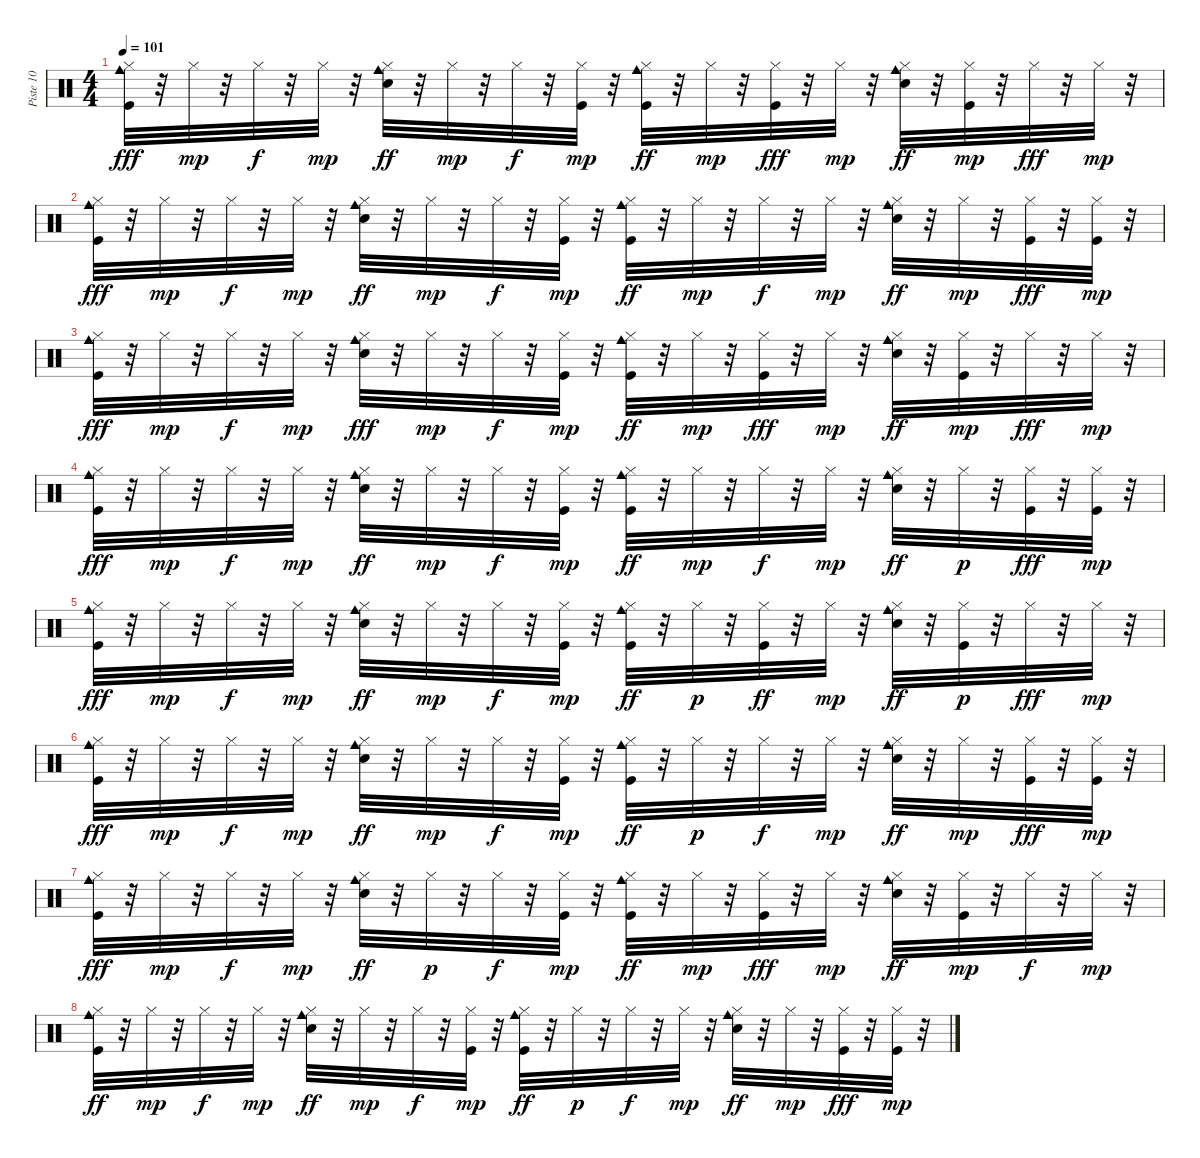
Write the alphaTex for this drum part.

\track ("Piste 10" "Piste 10") {instrument percussion}
\staff {score}
\articulation defaults
\ts (4 4)
\tempo 101
\clef neutral
\ks c
("Kick (hit)" "Hi-Hat (closed)" "Cowbell medium (hit)").32{dy fff} r.32 "Hi-Hat (closed)".32{dy mp} r.32 "Hi-Hat (closed)".32{dy f} r.32 "Hi-Hat (closed)".32{dy mp} r.32 ("Electric Snare (hit)" "Hi-Hat (closed)" "Cowbell medium (hit)").32{dy ff} r.32 "Hi-Hat (closed)".32{dy mp} r.32 "Hi-Hat (closed)".32{dy f} r.32 ("Kick (hit)" "Hi-Hat (closed)").32{dy mp} r.32 ("Kick (hit)" "Hi-Hat (closed)" "Cowbell medium (hit)").32{dy ff} r.32 "Hi-Hat (closed)".32{dy mp} r.32 ("Kick (hit)" "Hi-Hat (closed)").32{dy fff} r.32 "Hi-Hat (closed)".32{dy mp} r.32 ("Electric Snare (hit)" "Hi-Hat (closed)" "Cowbell medium (hit)").32{dy ff} r.32 ("Kick (hit)" "Hi-Hat (closed)").32{dy mp} r.32 "Hi-Hat (closed)".32{dy fff} r.32 "Hi-Hat (closed)".32{dy mp} r.32 |
("Kick (hit)" "Hi-Hat (closed)" "Cowbell medium (hit)").32{dy fff} r.32 "Hi-Hat (closed)".32{dy mp} r.32 "Hi-Hat (closed)".32{dy f} r.32 "Hi-Hat (closed)".32{dy mp} r.32 ("Electric Snare (hit)" "Hi-Hat (closed)" "Cowbell medium (hit)").32{dy ff} r.32 "Hi-Hat (closed)".32{dy mp} r.32 "Hi-Hat (closed)".32{dy f} r.32 ("Kick (hit)" "Hi-Hat (closed)").32{dy mp} r.32 ("Kick (hit)" "Hi-Hat (closed)" "Cowbell medium (hit)").32{dy ff} r.32 "Hi-Hat (closed)".32{dy mp} r.32 "Hi-Hat (closed)".32{dy f} r.32 "Hi-Hat (closed)".32{dy mp} r.32 ("Electric Snare (hit)" "Hi-Hat (closed)" "Cowbell medium (hit)").32{dy ff} r.32 "Hi-Hat (closed)".32{dy mp} r.32 ("Kick (hit)" "Hi-Hat (closed)").32{dy fff} r.32 ("Kick (hit)" "Hi-Hat (closed)").32{dy mp} r.32 |
("Kick (hit)" "Hi-Hat (closed)" "Cowbell medium (hit)").32{dy fff} r.32 "Hi-Hat (closed)".32{dy mp} r.32 "Hi-Hat (closed)".32{dy f} r.32 "Hi-Hat (closed)".32{dy mp} r.32 ("Electric Snare (hit)" "Hi-Hat (closed)" "Cowbell medium (hit)").32{dy fff} r.32 "Hi-Hat (closed)".32{dy mp} r.32 "Hi-Hat (closed)".32{dy f} r.32 ("Kick (hit)" "Hi-Hat (closed)").32{dy mp} r.32 ("Kick (hit)" "Hi-Hat (closed)" "Cowbell medium (hit)").32{dy ff} r.32 "Hi-Hat (closed)".32{dy mp} r.32 ("Kick (hit)" "Hi-Hat (closed)").32{dy fff} r.32 "Hi-Hat (closed)".32{dy mp} r.32 ("Electric Snare (hit)" "Hi-Hat (closed)" "Cowbell medium (hit)").32{dy ff} r.32 ("Kick (hit)" "Hi-Hat (closed)").32{dy mp} r.32 "Hi-Hat (closed)".32{dy fff} r.32 "Hi-Hat (closed)".32{dy mp} r.32 |
("Kick (hit)" "Hi-Hat (closed)" "Cowbell medium (hit)").32{dy fff} r.32 "Hi-Hat (closed)".32{dy mp} r.32 "Hi-Hat (closed)".32{dy f} r.32 "Hi-Hat (closed)".32{dy mp} r.32 ("Electric Snare (hit)" "Hi-Hat (closed)" "Cowbell medium (hit)").32{dy ff} r.32 "Hi-Hat (closed)".32{dy mp} r.32 "Hi-Hat (closed)".32{dy f} r.32 ("Kick (hit)" "Hi-Hat (closed)").32{dy mp} r.32 ("Kick (hit)" "Hi-Hat (closed)" "Cowbell medium (hit)").32{dy ff} r.32 "Hi-Hat (closed)".32{dy mp} r.32 "Hi-Hat (closed)".32{dy f} r.32 "Hi-Hat (closed)".32{dy mp} r.32 ("Electric Snare (hit)" "Hi-Hat (closed)" "Cowbell medium (hit)").32{dy ff} r.32 "Hi-Hat (closed)".32{dy p} r.32 ("Kick (hit)" "Hi-Hat (closed)").32{dy fff} r.32 ("Kick (hit)" "Hi-Hat (closed)").32{dy mp} r.32 |
("Kick (hit)" "Hi-Hat (closed)" "Cowbell medium (hit)").32{dy fff} r.32 "Hi-Hat (closed)".32{dy mp} r.32 "Hi-Hat (closed)".32{dy f} r.32 "Hi-Hat (closed)".32{dy mp} r.32 ("Electric Snare (hit)" "Hi-Hat (closed)" "Cowbell medium (hit)").32{dy ff} r.32 "Hi-Hat (closed)".32{dy mp} r.32 "Hi-Hat (closed)".32{dy f} r.32 ("Kick (hit)" "Hi-Hat (closed)").32{dy mp} r.32 ("Kick (hit)" "Hi-Hat (closed)" "Cowbell medium (hit)").32{dy ff} r.32 "Hi-Hat (closed)".32{dy p} r.32 ("Kick (hit)" "Hi-Hat (closed)").32{dy ff} r.32 "Hi-Hat (closed)".32{dy mp} r.32 ("Electric Snare (hit)" "Hi-Hat (closed)" "Cowbell medium (hit)").32{dy ff} r.32 ("Kick (hit)" "Hi-Hat (closed)").32{dy p} r.32 "Hi-Hat (closed)".32{dy fff} r.32 "Hi-Hat (closed)".32{dy mp} r.32 |
("Kick (hit)" "Hi-Hat (closed)" "Cowbell medium (hit)").32{dy fff} r.32 "Hi-Hat (closed)".32{dy mp} r.32 "Hi-Hat (closed)".32{dy f} r.32 "Hi-Hat (closed)".32{dy mp} r.32 ("Electric Snare (hit)" "Hi-Hat (closed)" "Cowbell medium (hit)").32{dy ff} r.32 "Hi-Hat (closed)".32{dy mp} r.32 "Hi-Hat (closed)".32{dy f} r.32 ("Kick (hit)" "Hi-Hat (closed)").32{dy mp} r.32 ("Kick (hit)" "Hi-Hat (closed)" "Cowbell medium (hit)").32{dy ff} r.32 "Hi-Hat (closed)".32{dy p} r.32 "Hi-Hat (closed)".32{dy f} r.32 "Hi-Hat (closed)".32{dy mp} r.32 ("Electric Snare (hit)" "Hi-Hat (closed)" "Cowbell medium (hit)").32{dy ff} r.32 "Hi-Hat (closed)".32{dy mp} r.32 ("Kick (hit)" "Hi-Hat (closed)").32{dy fff} r.32 ("Kick (hit)" "Hi-Hat (closed)").32{dy mp} r.32 |
("Kick (hit)" "Hi-Hat (closed)" "Cowbell medium (hit)").32{dy fff} r.32 "Hi-Hat (closed)".32{dy mp} r.32 "Hi-Hat (closed)".32{dy f} r.32 "Hi-Hat (closed)".32{dy mp} r.32 ("Electric Snare (hit)" "Hi-Hat (closed)" "Cowbell medium (hit)").32{dy ff} r.32 "Hi-Hat (closed)".32{dy p} r.32 "Hi-Hat (closed)".32{dy f} r.32 ("Kick (hit)" "Hi-Hat (closed)").32{dy mp} r.32 ("Kick (hit)" "Hi-Hat (closed)" "Cowbell medium (hit)").32{dy ff} r.32 "Hi-Hat (closed)".32{dy mp} r.32 ("Kick (hit)" "Hi-Hat (closed)").32{dy fff} r.32 "Hi-Hat (closed)".32{dy mp} r.32 ("Electric Snare (hit)" "Hi-Hat (closed)" "Cowbell medium (hit)").32{dy ff} r.32 ("Kick (hit)" "Hi-Hat (closed)").32{dy mp} r.32 "Hi-Hat (closed)".32{dy f} r.32 "Hi-Hat (closed)".32{dy mp} r.32 |
("Kick (hit)" "Hi-Hat (closed)" "Cowbell medium (hit)").32{dy ff} r.32 "Hi-Hat (closed)".32{dy mp} r.32 "Hi-Hat (closed)".32{dy f} r.32 "Hi-Hat (closed)".32{dy mp} r.32 ("Electric Snare (hit)" "Hi-Hat (closed)" "Cowbell medium (hit)").32{dy ff} r.32 "Hi-Hat (closed)".32{dy mp} r.32 "Hi-Hat (closed)".32{dy f} r.32 ("Kick (hit)" "Hi-Hat (closed)").32{dy mp} r.32 ("Kick (hit)" "Hi-Hat (closed)" "Cowbell medium (hit)").32{dy ff} r.32 "Hi-Hat (closed)".32{dy p} r.32 "Hi-Hat (closed)".32{dy f} r.32 "Hi-Hat (closed)".32{dy mp} r.32 ("Electric Snare (hit)" "Hi-Hat (closed)" "Cowbell medium (hit)").32{dy ff} r.32 "Hi-Hat (closed)".32{dy mp} r.32 ("Kick (hit)" "Hi-Hat (closed)").32{dy fff} r.32 ("Kick (hit)" "Hi-Hat (closed)").32{dy mp} r.32
